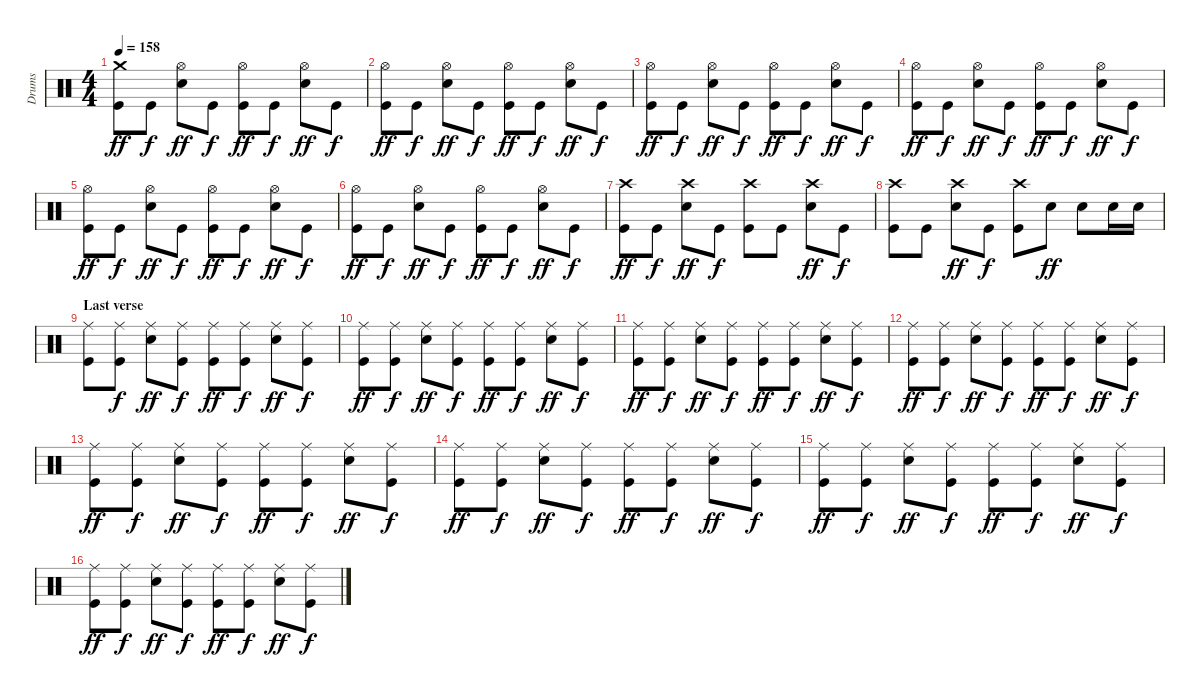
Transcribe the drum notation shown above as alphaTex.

\track ("Drums" "Drums") {instrument percussion}
\staff {score}
\articulation defaults
\ts (4 4)
\tempo 158
\clef neutral
\ks c
("Crash medium (hit)" "Kick (hit)").8{dy ff} "Kick (hit)".8{dy f} ("Hi-Hat (open)" "Electric Snare (hit)").8{dy ff} "Kick (hit)".8{dy f} ("Hi-Hat (open)" "Kick (hit)").8{dy ff} "Kick (hit)".8{dy f} ("Hi-Hat (open)" "Electric Snare (hit)").8{dy ff} "Kick (hit)".8{dy f} |
("Hi-Hat (open)" "Kick (hit)").8{dy ff} "Kick (hit)".8{dy f} ("Hi-Hat (open)" "Electric Snare (hit)").8{dy ff} "Kick (hit)".8{dy f} ("Hi-Hat (open)" "Kick (hit)").8{dy ff} "Kick (hit)".8{dy f} ("Hi-Hat (open)" "Electric Snare (hit)").8{dy ff} "Kick (hit)".8{dy f} |
("Hi-Hat (open)" "Kick (hit)").8{dy ff} "Kick (hit)".8{dy f} ("Hi-Hat (open)" "Electric Snare (hit)").8{dy ff} "Kick (hit)".8{dy f} ("Hi-Hat (open)" "Kick (hit)").8{dy ff} "Kick (hit)".8{dy f} ("Hi-Hat (open)" "Electric Snare (hit)").8{dy ff} "Kick (hit)".8{dy f} |
("Hi-Hat (open)" "Kick (hit)").8{dy ff} "Kick (hit)".8{dy f} ("Hi-Hat (open)" "Electric Snare (hit)").8{dy ff} "Kick (hit)".8{dy f} ("Hi-Hat (open)" "Kick (hit)").8{dy ff} "Kick (hit)".8{dy f} ("Hi-Hat (open)" "Electric Snare (hit)").8{dy ff} "Kick (hit)".8{dy f} |
("Hi-Hat (open)" "Kick (hit)").8{dy ff} "Kick (hit)".8{dy f} ("Hi-Hat (open)" "Electric Snare (hit)").8{dy ff} "Kick (hit)".8{dy f} ("Hi-Hat (open)" "Kick (hit)").8{dy ff} "Kick (hit)".8{dy f} ("Hi-Hat (open)" "Electric Snare (hit)").8{dy ff} "Kick (hit)".8{dy f} |
("Hi-Hat (open)" "Kick (hit)").8{dy ff} "Kick (hit)".8{dy f} ("Hi-Hat (open)" "Electric Snare (hit)").8{dy ff} "Kick (hit)".8{dy f} ("Hi-Hat (open)" "Kick (hit)").8{dy ff} "Kick (hit)".8{dy f} ("Hi-Hat (open)" "Electric Snare (hit)").8{dy ff} "Kick (hit)".8{dy f} |
("Crash high (hit)" "Kick (hit)").8{dy ff} "Kick (hit)".8{dy f} ("Crash high (hit)" "Electric Snare (hit)").8{dy ff} "Kick (hit)".8{dy f} ("Crash high (hit)" "Kick (hit)").8 "Kick (hit)".8 ("Crash high (hit)" "Electric Snare (hit)").8{dy ff} "Kick (hit)".8{dy f} |
("Crash high (hit)" "Kick (hit)").8 "Kick (hit)".8 ("Crash high (hit)" "Electric Snare (hit)").8{dy ff} "Kick (hit)".8{dy f} ("Crash high (hit)" "Kick (hit)").8 "Electric Snare (hit)".8{dy ff} "Electric Snare (hit)".8 "Electric Snare (hit)".16 "Electric Snare (hit)".16 |
\section ("" "Last verse")
("Ride (middle)" "Kick (hit)").8 ("Ride (middle)" "Kick (hit)").8{dy f} ("Ride (middle)" "Electric Snare (hit)").8{dy ff} ("Ride (middle)" "Kick (hit)").8{dy f} ("Ride (middle)" "Kick (hit)").8{dy ff} ("Ride (middle)" "Kick (hit)").8{dy f} ("Ride (middle)" "Electric Snare (hit)").8{dy ff} ("Ride (middle)" "Kick (hit)").8{dy f} |
("Ride (middle)" "Kick (hit)").8{dy ff} ("Ride (middle)" "Kick (hit)").8{dy f} ("Ride (middle)" "Electric Snare (hit)").8{dy ff} ("Ride (middle)" "Kick (hit)").8{dy f} ("Ride (middle)" "Kick (hit)").8{dy ff} ("Ride (middle)" "Kick (hit)").8{dy f} ("Ride (middle)" "Electric Snare (hit)").8{dy ff} ("Ride (middle)" "Kick (hit)").8{dy f} |
("Ride (middle)" "Kick (hit)").8{dy ff} ("Ride (middle)" "Kick (hit)").8{dy f} ("Ride (middle)" "Electric Snare (hit)").8{dy ff} ("Ride (middle)" "Kick (hit)").8{dy f} ("Ride (middle)" "Kick (hit)").8{dy ff} ("Ride (middle)" "Kick (hit)").8{dy f} ("Ride (middle)" "Electric Snare (hit)").8{dy ff} ("Ride (middle)" "Kick (hit)").8{dy f} |
("Ride (middle)" "Kick (hit)").8{dy ff} ("Ride (middle)" "Kick (hit)").8{dy f} ("Ride (middle)" "Electric Snare (hit)").8{dy ff} ("Ride (middle)" "Kick (hit)").8{dy f} ("Ride (middle)" "Kick (hit)").8{dy ff} ("Ride (middle)" "Kick (hit)").8{dy f} ("Ride (middle)" "Electric Snare (hit)").8{dy ff} ("Ride (middle)" "Kick (hit)").8{dy f} |
("Ride (middle)" "Kick (hit)").8{dy ff} ("Ride (middle)" "Kick (hit)").8{dy f} ("Ride (middle)" "Electric Snare (hit)").8{dy ff} ("Ride (middle)" "Kick (hit)").8{dy f} ("Ride (middle)" "Kick (hit)").8{dy ff} ("Ride (middle)" "Kick (hit)").8{dy f} ("Ride (middle)" "Electric Snare (hit)").8{dy ff} ("Ride (middle)" "Kick (hit)").8{dy f} |
("Ride (middle)" "Kick (hit)").8{dy ff} ("Ride (middle)" "Kick (hit)").8{dy f} ("Ride (middle)" "Electric Snare (hit)").8{dy ff} ("Ride (middle)" "Kick (hit)").8{dy f} ("Ride (middle)" "Kick (hit)").8{dy ff} ("Ride (middle)" "Kick (hit)").8{dy f} ("Ride (middle)" "Electric Snare (hit)").8{dy ff} ("Ride (middle)" "Kick (hit)").8{dy f} |
("Ride (middle)" "Kick (hit)").8{dy ff} ("Ride (middle)" "Kick (hit)").8{dy f} ("Ride (middle)" "Electric Snare (hit)").8{dy ff} ("Ride (middle)" "Kick (hit)").8{dy f} ("Ride (middle)" "Kick (hit)").8{dy ff} ("Ride (middle)" "Kick (hit)").8{dy f} ("Ride (middle)" "Electric Snare (hit)").8{dy ff} ("Ride (middle)" "Kick (hit)").8{dy f} |
("Ride (middle)" "Kick (hit)").8{dy ff} ("Ride (middle)" "Kick (hit)").8{dy f} ("Ride (middle)" "Electric Snare (hit)").8{dy ff} ("Ride (middle)" "Kick (hit)").8{dy f} ("Ride (middle)" "Kick (hit)").8{dy ff} ("Ride (middle)" "Kick (hit)").8{dy f} ("Ride (middle)" "Electric Snare (hit)").8{dy ff} ("Ride (middle)" "Kick (hit)").8{dy f}
